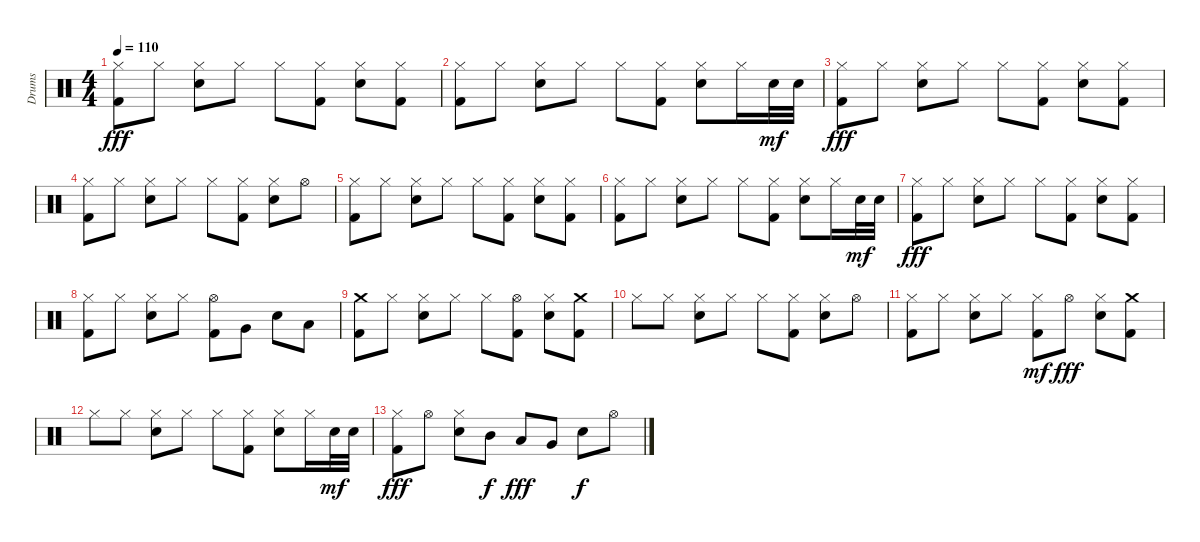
\track ("Drums" "Drums") {instrument percussion}
\staff {score}
\articulation defaults
\ts (4 4)
\tempo 110
\clef neutral
\ks c
("Hi-Hat (closed)" "Kick (hit) 2").8{dy fff} "Hi-Hat (closed)".8 ("Hi-Hat (closed)" "Electric Snare (hit)").8 "Hi-Hat (closed)".8 "Hi-Hat (closed)".8 ("Hi-Hat (closed)" "Kick (hit) 2").8 ("Hi-Hat (closed)" "Electric Snare (hit)").8 ("Hi-Hat (closed)" "Kick (hit) 2").8 |
("Hi-Hat (closed)" "Kick (hit) 2").8 "Hi-Hat (closed)".8 ("Hi-Hat (closed)" "Electric Snare (hit)").8 "Hi-Hat (closed)".8 "Hi-Hat (closed)".8 ("Hi-Hat (closed)" "Kick (hit) 2").8 ("Hi-Hat (closed)" "Electric Snare (hit)").8 "Hi-Hat (closed)".16 "Electric Snare (hit)".32{dy mf} "Electric Snare (hit)".32 |
("Hi-Hat (closed)" "Kick (hit) 2").8{dy fff} "Hi-Hat (closed)".8 ("Hi-Hat (closed)" "Electric Snare (hit)").8 "Hi-Hat (closed)".8 "Hi-Hat (closed)".8 ("Hi-Hat (closed)" "Kick (hit) 2").8 ("Hi-Hat (closed)" "Electric Snare (hit)").8 ("Hi-Hat (closed)" "Kick (hit) 2").8 |
("Hi-Hat (closed)" "Kick (hit) 2").8 "Hi-Hat (closed)".8 ("Hi-Hat (closed)" "Electric Snare (hit)").8 "Hi-Hat (closed)".8 "Hi-Hat (closed)".8 ("Hi-Hat (closed)" "Kick (hit) 2").8 ("Hi-Hat (closed)" "Electric Snare (hit)").8 "Hi-Hat (open)".8 |
("Hi-Hat (closed)" "Kick (hit) 2").8 "Hi-Hat (closed)".8 ("Hi-Hat (closed)" "Electric Snare (hit)").8 "Hi-Hat (closed)".8 "Hi-Hat (closed)".8 ("Hi-Hat (closed)" "Kick (hit) 2").8 ("Hi-Hat (closed)" "Electric Snare (hit)").8 ("Hi-Hat (closed)" "Kick (hit) 2").8 |
("Hi-Hat (closed)" "Kick (hit) 2").8 "Hi-Hat (closed)".8 ("Hi-Hat (closed)" "Electric Snare (hit)").8 "Hi-Hat (closed)".8 "Hi-Hat (closed)".8 ("Hi-Hat (closed)" "Kick (hit) 2").8 ("Hi-Hat (closed)" "Electric Snare (hit)").8 "Hi-Hat (closed)".16 "Electric Snare (hit)".32{dy mf} "Electric Snare (hit)".32 |
("Hi-Hat (closed)" "Kick (hit) 2").8{dy fff} "Hi-Hat (closed)".8 ("Hi-Hat (closed)" "Electric Snare (hit)").8 "Hi-Hat (closed)".8 "Hi-Hat (closed)".8 ("Hi-Hat (closed)" "Kick (hit) 2").8 ("Hi-Hat (closed)" "Electric Snare (hit)").8 ("Hi-Hat (closed)" "Kick (hit) 2").8 |
("Hi-Hat (closed)" "Kick (hit) 2").8 "Hi-Hat (closed)".8 ("Hi-Hat (closed)" "Electric Snare (hit)").8 "Hi-Hat (closed)".8 ("Hi-Hat (open)" "Kick (hit) 2").8 "Very Low Tom (hit)".8 "Electric Snare (hit)".8 "Low Tom (hit)".8 |
("Crash medium (hit)" "Kick (hit) 2").8 "Hi-Hat (closed)".8 ("Hi-Hat (closed)" "Electric Snare (hit)").8 "Hi-Hat (closed)".8 "Hi-Hat (closed)".8 ("Hi-Hat (open)" "Kick (hit) 2").8 ("Hi-Hat (closed)" "Electric Snare (hit)").8 ("Crash medium (hit)" "Kick (hit) 2").8 |
"Hi-Hat (closed)".8 "Hi-Hat (closed)".8 ("Hi-Hat (closed)" "Electric Snare (hit)").8 "Hi-Hat (closed)".8 "Hi-Hat (closed)".8 ("Hi-Hat (closed)" "Kick (hit) 2").8 ("Hi-Hat (closed)" "Electric Snare (hit)").8 "Hi-Hat (open)".8 |
("Hi-Hat (closed)" "Kick (hit) 2").8 "Hi-Hat (closed)".8 ("Hi-Hat (closed)" "Electric Snare (hit)").8 "Hi-Hat (closed)".8 ("Hi-Hat (closed)" "Kick (hit) 2").8{dy mf} "Hi-Hat (open)".8{dy fff} ("Hi-Hat (closed)" "Electric Snare (hit)").8 ("Crash medium (hit)" "Kick (hit) 2").8 |
"Hi-Hat (closed)".8 "Hi-Hat (closed)".8 ("Hi-Hat (closed)" "Electric Snare (hit)").8 "Hi-Hat (closed)".8 "Hi-Hat (closed)".8 ("Hi-Hat (closed)" "Kick (hit) 2").8 ("Hi-Hat (closed)" "Electric Snare (hit)").8 "Hi-Hat (closed)".16 "Electric Snare (hit)".32{dy mf} "Electric Snare (hit)".32 |
("Hi-Hat (closed)" "Kick (hit) 2").8{dy fff} "Hi-Hat (open)".8 ("Hi-Hat (closed)" "Electric Snare (hit)").8 "Mid Tom (hit)".8{dy f} "Low Tom (hit)".8{dy fff} "Very Low Tom (hit)".8 "Electric Snare (hit)".8{dy f} "Hi-Hat (open)".8
